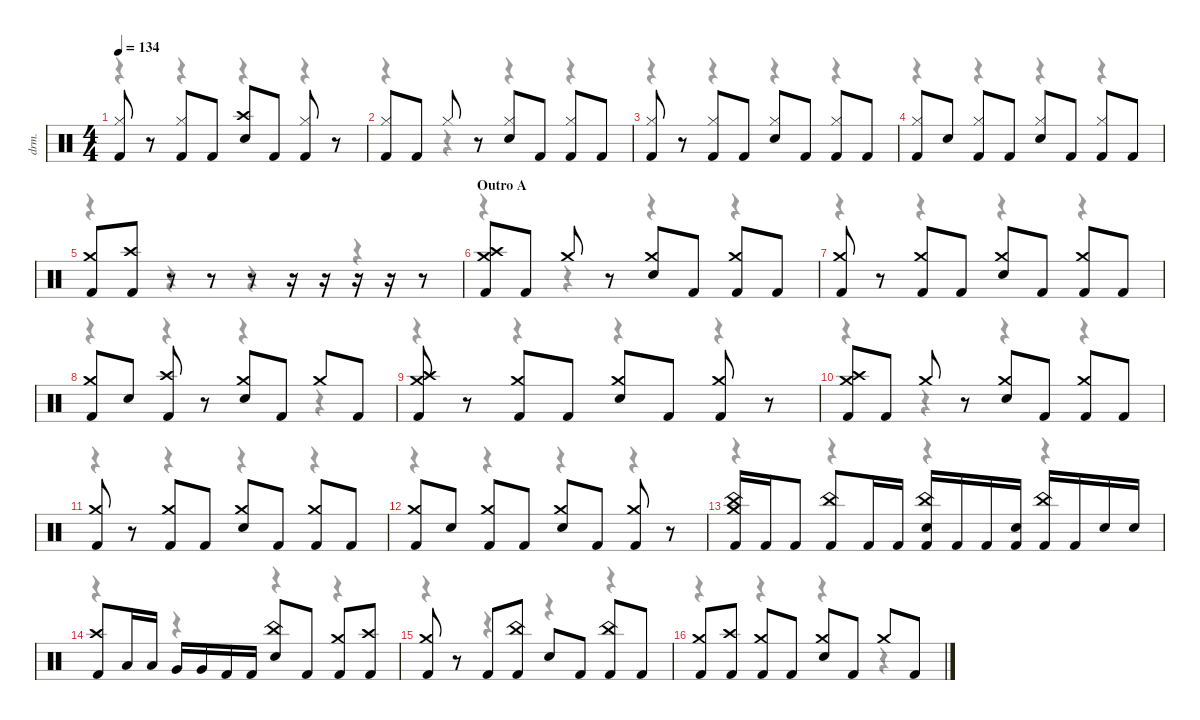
\defaultSystemsLayout 4
\hideDynamics
\bracketExtendMode nobrackets
\track ("Alex Ballew" "drm.") {instrument percussion}
\staff {score}
\articulation defaults
\voice
\ts (4 4)
\tempo 134
\clef neutral
\ks c
("Hi-Hat (closed)" "Kick (hit) 2").8{dy f} r.8 ("Hi-Hat (closed)" "Kick (hit) 2").8 "Kick (hit) 2".8 ("Crash high (hit)" "Snare (hit) 2").8 "Kick (hit) 2".8 ("Hi-Hat (closed)" "Kick (hit) 2").8 r.8 |
("Hi-Hat (closed)" "Kick (hit) 2").8 "Kick (hit) 2".8 "Hi-Hat (closed)".8 r.8 ("Hi-Hat (closed)" "Snare (hit) 2").8 "Kick (hit) 2".8 ("Hi-Hat (closed)" "Kick (hit) 2").8 "Kick (hit) 2".8 |
("Hi-Hat (closed)" "Kick (hit) 2").8 r.8 ("Hi-Hat (closed)" "Kick (hit) 2").8 "Kick (hit) 2".8 ("Hi-Hat (closed)" "Snare (hit) 2").8 "Kick (hit) 2".8 ("Hi-Hat (closed)" "Kick (hit) 2").8 "Kick (hit) 2".8 |
("Hi-Hat (closed)" "Kick (hit) 2").8 "Snare (hit) 2".8 ("Hi-Hat (closed)" "Kick (hit) 2").8 "Kick (hit) 2".8 ("Hi-Hat (closed)" "Snare (hit) 2").8 "Kick (hit) 2".8 ("Hi-Hat (closed)" "Kick (hit) 2").8 "Kick (hit) 2".8 |
("Crash medium (hit)" "Kick (hit) 2").8 ("Crash high (hit)" "Kick (hit) 2").8 r.8 r.8 r.8 r.16 r.16 r.16 r.16 r.8 |
\section ("" "Outro A")
("Crash medium (hit)" "Crash high (hit)" "Kick (hit) 2").8 "Kick (hit) 2".8 "Crash medium (hit)".8 r.8 ("Crash medium (hit)" "Snare (hit) 2").8 "Kick (hit) 2".8 ("Crash medium (hit)" "Kick (hit) 2").8 "Kick (hit) 2".8 |
("Crash medium (hit)" "Kick (hit) 2").8 r.8 ("Crash medium (hit)" "Kick (hit) 2").8 "Kick (hit) 2".8 ("Crash medium (hit)" "Snare (hit) 2").8 "Kick (hit) 2".8 ("Crash medium (hit)" "Kick (hit) 2").8 "Kick (hit) 2".8 |
("Crash medium (hit)" "Kick (hit) 2").8 "Snare (hit) 2".8 ("Crash high (hit)" "Kick (hit) 2").8 r.8 ("Crash medium (hit)" "Snare (hit) 2").8 "Kick (hit) 2".8 "Crash medium (hit)".8 "Kick (hit) 2".8 |
("Crash medium (hit)" "Crash high (hit)" "Kick (hit) 2").8 r.8 ("Crash medium (hit)" "Kick (hit) 2").8 "Kick (hit) 2".8 ("Crash medium (hit)" "Snare (hit) 2").8 "Kick (hit) 2".8 ("Crash medium (hit)" "Kick (hit) 2").8 r.8 |
("Crash medium (hit)" "Crash high (hit)" "Kick (hit) 2").8 "Kick (hit) 2".8 "Crash medium (hit)".8 r.8 ("Crash medium (hit)" "Snare (hit) 2").8 "Kick (hit) 2".8 ("Crash medium (hit)" "Kick (hit) 2").8 "Kick (hit) 2".8 |
("Crash medium (hit)" "Kick (hit) 2").8 r.8 ("Crash medium (hit)" "Kick (hit) 2").8 "Kick (hit) 2".8 ("Crash medium (hit)" "Snare (hit) 2").8 "Kick (hit) 2".8 ("Crash medium (hit)" "Kick (hit) 2").8 "Kick (hit) 2".8 |
("Crash medium (hit)" "Kick (hit) 2").8 "Snare (hit) 2".8 ("Crash medium (hit)" "Kick (hit) 2").8 "Kick (hit) 2".8 ("Crash medium (hit)" "Snare (hit) 2").8 "Kick (hit) 2".8 ("Crash medium (hit)" "Kick (hit) 2").8 r.8 |
("China (hit)" "Crash medium (hit)" "Kick (hit) 2").16 "Kick (hit) 2".16 "Kick (hit) 2".8 ("China (hit)" "Kick (hit) 2").8 "Kick (hit) 2".16 "Kick (hit) 2".16 ("China (hit)" "Snare (hit) 2" "Kick (hit) 2").16 "Kick (hit) 2".16 "Kick (hit) 2".16 ("Snare (hit) 2" "Kick (hit) 2").16 ("China (hit)" "Kick (hit) 2").16 "Kick (hit) 2".16 "Snare (hit) 2".16 "Snare (hit) 2".16 |
("Crash high (hit)" "Kick (hit) 2").8 "Low Tom (hit)".16 "Low Tom (hit)".16 "Very Low Tom (hit)".16 "Very Low Tom (hit)".16 "Kick (hit) 2".16 "Kick (hit) 2".16 ("China (hit)" "Snare (hit) 2").8 "Kick (hit) 2".8 ("Crash medium (hit)" "Kick (hit) 2").8 ("Crash high (hit)" "Kick (hit) 2").8 |
("Crash medium (hit)" "Kick (hit) 2").8 r.8 "Kick (hit) 2".8 ("China (hit)" "Kick (hit) 2").8 "Snare (hit) 2".8 "Kick (hit) 2".8 ("China (hit)" "Kick (hit) 2").8 "Kick (hit) 2".8 |
("Crash medium (hit)" "Kick (hit) 2").8 ("Crash high (hit)" "Kick (hit) 2").8 ("Crash medium (hit)" "Kick (hit) 2").8 "Kick (hit) 2".8 ("Crash medium (hit)" "Snare (hit) 2").8 "Kick (hit) 2".8 "Crash medium (hit)".8 "Kick (hit) 2".8
\voice
\clef neutral
\ottava regular
\simile none
\ks c
r.4{dy mf} r.4 r.4 r.4 |
r.4 r.4 r.4 r.4 |
r.4 r.4 r.4 r.4 |
r.4 r.4 r.4 r.4 |
r.4 r.4 r.4 r.4 |
r.4 r.4 r.4 r.4 |
r.4 r.4 r.4 r.4 |
r.4 r.4 r.4 r.4 |
r.4 r.4 r.4 r.4 |
r.4 r.4 r.4 r.4 |
r.4 r.4 r.4 r.4 |
r.4 r.4 r.4 r.4 |
r.4 r.4 r.4 r.4 |
r.4 r.4 r.4 r.4 |
r.4 r.4 r.4 r.4 |
r.4 r.4 r.4 r.4
